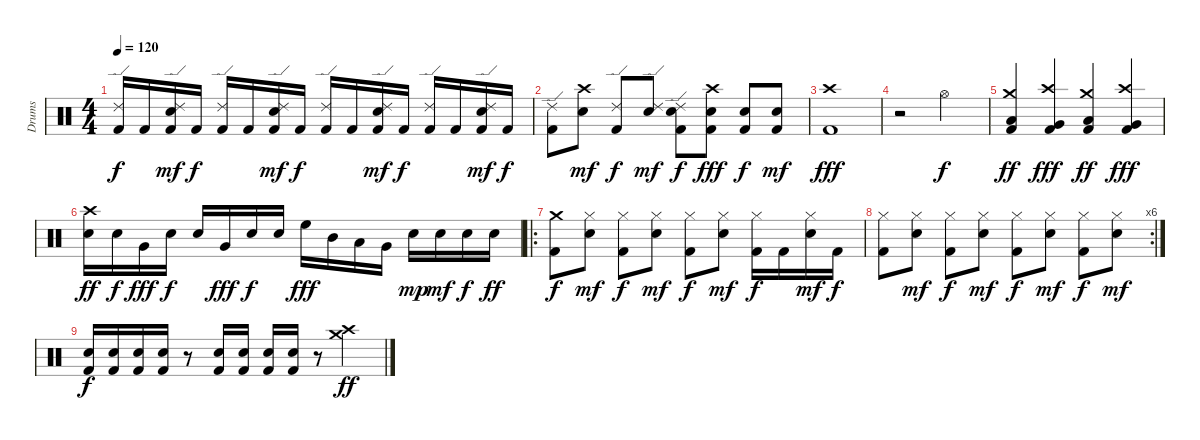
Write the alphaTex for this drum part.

\track ("Drums" "Drums") {instrument percussion}
\staff {score}
\articulation defaults
\ts (4 4)
\tempo 120
\clef neutral
\ks c
("Ride (edge) 2" "Kick (hit) 2").16{dy f} "Kick (hit) 2".16 ("Ride (edge) 2" "Snare (hit) 2" "Kick (hit) 2").16{dy mf} "Kick (hit) 2".16{dy f} ("Ride (edge) 2" "Kick (hit) 2").16 "Kick (hit) 2".16 ("Ride (edge) 2" "Snare (hit) 2" "Kick (hit) 2").16{dy mf} "Kick (hit) 2".16{dy f} ("Ride (edge) 2" "Kick (hit) 2").16 "Kick (hit) 2".16 ("Ride (edge) 2" "Snare (hit) 2" "Kick (hit) 2").16{dy mf} "Kick (hit) 2".16{dy f} ("Ride (edge) 2" "Kick (hit) 2").16 "Kick (hit) 2".16 ("Ride (edge) 2" "Snare (hit) 2" "Kick (hit) 2").16{dy mf} "Kick (hit) 2".16{dy f} |
("Ride (edge) 2" "Kick (hit) 2").8 ("Crash high (hit)" "Snare (hit) 2").8{dy mf} ("Ride (edge) 2" "Kick (hit) 2").8{dy f} ("Ride (edge) 2" "Snare (hit) 2").8{dy mf} ("Ride (edge) 2" "Snare (hit) 2" "Kick (hit) 2").8{dy f} ("Crash high (hit)" "Snare (hit) 2" "Kick (hit) 2").8{dy fff} ("Snare (hit) 2" "Kick (hit) 2").8{dy f} ("Snare (hit) 2" "Kick (hit) 2").8{dy mf} |
("Crash high (hit)" "Kick (hit) 2").1{dy fff} |
r.2 "Hi-Hat (open)".2{dy f} |
("Crash medium (hit)" "Low Floor Tom (hit)" "Kick (hit) 2").4{dy ff balance 4} ("Crash high (hit)" "Very Low Tom (hit)" "Kick (hit) 2").4{dy fff balance 12} ("Crash medium (hit)" "Low Floor Tom (hit)" "Kick (hit) 2").4{dy ff balance 4} ("Crash high (hit)" "Very Low Tom (hit)" "Kick (hit) 2").4{dy fff balance 12} |
("Crash high (hit)" "Snare (hit) 2").16{dy ff balance 8} "Snare (hit) 2".16{dy f} "Very Low Tom (hit)".16{dy fff} "Snare (hit) 2".16{dy f} "Snare (hit) 2".16 "Very Low Tom (hit)".16{dy fff} "Snare (hit) 2".16{dy f} "Snare (hit) 2".16 "High Floor Tom (hit)".16{dy fff} "Mid Tom (hit)".16 "Low Tom (hit)".16 "Very Low Tom (hit)".16 "Snare (hit) 2".16{dy mp} "Snare (hit) 2".16{dy mf} "Snare (hit) 2".16{dy f} "Snare (hit) 2".16{dy ff} |
\ro
("Crash medium (hit)" "Kick (hit) 2").8{dy f} ("Hi-Hat (closed)" "Snare (hit) 2").8{dy mf} ("Hi-Hat (closed)" "Kick (hit) 2").8{dy f} ("Hi-Hat (closed)" "Snare (hit) 2").8{dy mf} ("Hi-Hat (closed)" "Kick (hit) 2").8{dy f} ("Hi-Hat (closed)" "Snare (hit) 2").8{dy mf} ("Hi-Hat (closed)" "Kick (hit) 2").16{dy f} "Kick (hit) 2".16 ("Hi-Hat (closed)" "Snare (hit) 2").16{dy mf} "Kick (hit) 2".16{dy f} |
\rc 6
("Hi-Hat (closed)" "Kick (hit) 2").8 ("Hi-Hat (closed)" "Snare (hit) 2").8{dy mf} ("Hi-Hat (closed)" "Kick (hit) 2").8{dy f} ("Hi-Hat (closed)" "Snare (hit) 2").8{dy mf} ("Hi-Hat (closed)" "Kick (hit) 2").8{dy f} ("Hi-Hat (closed)" "Snare (hit) 2").8{dy mf} ("Hi-Hat (closed)" "Kick (hit) 2").8{dy f} ("Hi-Hat (closed)" "Snare (hit) 2").8{dy mf} |
("Snare (hit) 2" "Kick (hit) 2").16{dy f} ("Snare (hit) 2" "Kick (hit) 2").16 ("Snare (hit) 2" "Kick (hit) 2").16 ("Snare (hit) 2" "Kick (hit) 2").16 r.8 ("Snare (hit) 2" "Kick (hit) 2").16 ("Snare (hit) 2" "Kick (hit) 2").16 ("Snare (hit) 2" "Kick (hit) 2").16 ("Snare (hit) 2" "Kick (hit) 2").16 r.8 ("Crash high (hit)" "Crash medium (hit)").4{dy ff}
